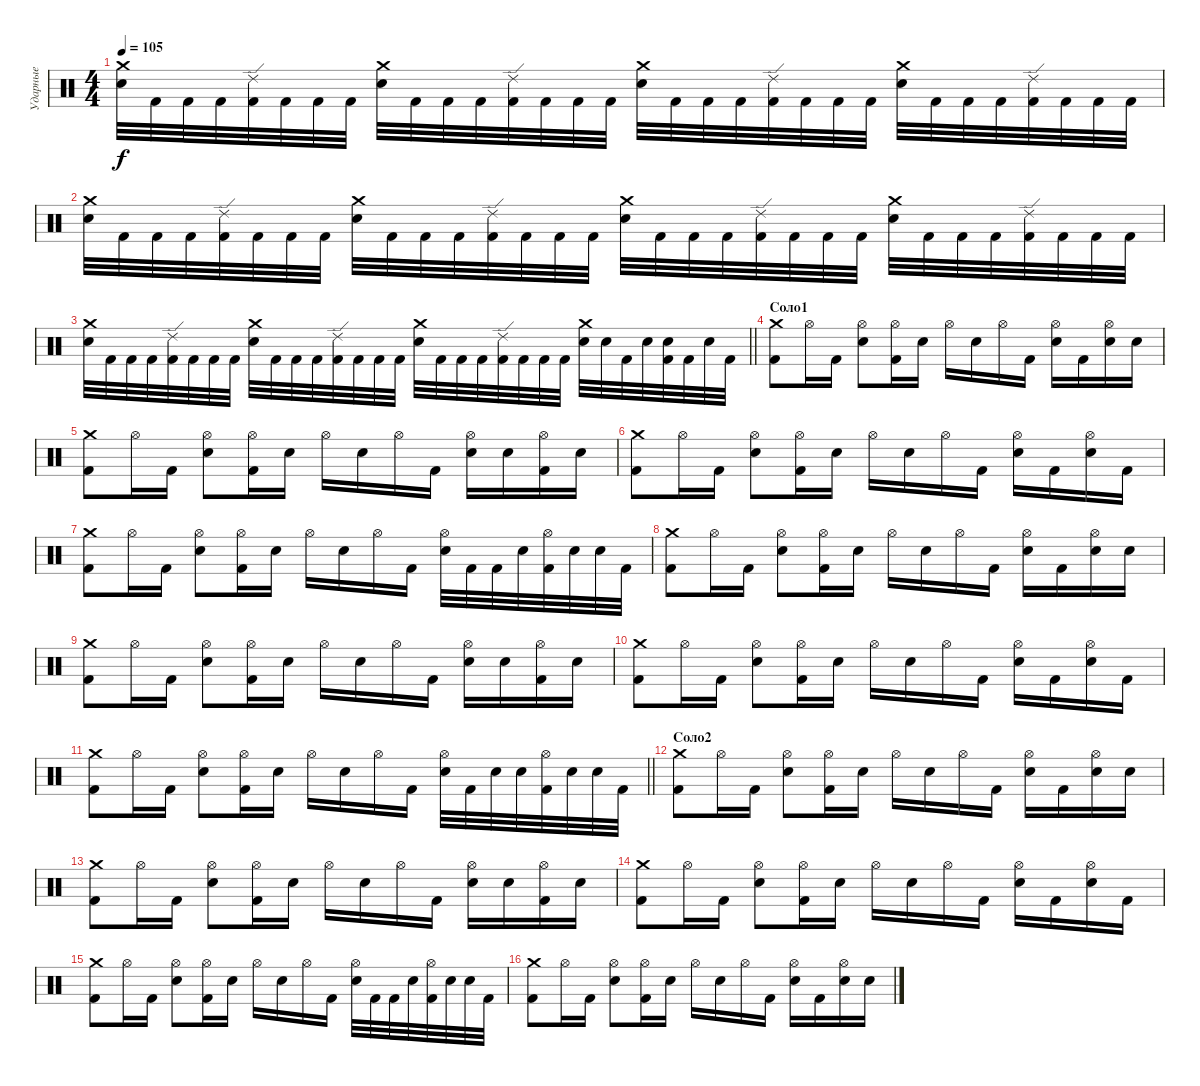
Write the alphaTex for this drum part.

\track ("Ударные" "Ударные") {instrument percussion}
\staff {score}
\articulation defaults
\ts (4 4)
\tempo 105
\clef neutral
\ks c
("Crash medium (hit)" "Electric Snare (hit)").32{dy f} "Kick (hit) 2".32 "Kick (hit) 2".32 "Kick (hit) 2".32 ("Ride (edge) 2" "Kick (hit) 2").32 "Kick (hit) 2".32 "Kick (hit) 2".32 "Kick (hit) 2".32 ("Crash medium (hit)" "Electric Snare (hit)").32 "Kick (hit) 2".32 "Kick (hit) 2".32 "Kick (hit) 2".32 ("Ride (edge) 2" "Kick (hit) 2").32 "Kick (hit) 2".32 "Kick (hit) 2".32 "Kick (hit) 2".32 ("Crash medium (hit)" "Electric Snare (hit)").32 "Kick (hit) 2".32 "Kick (hit) 2".32 "Kick (hit) 2".32 ("Ride (edge) 2" "Kick (hit) 2").32 "Kick (hit) 2".32 "Kick (hit) 2".32 "Kick (hit) 2".32 ("Crash medium (hit)" "Electric Snare (hit)").32 "Kick (hit) 2".32 "Kick (hit) 2".32 "Kick (hit) 2".32 ("Ride (edge) 2" "Kick (hit) 2").32 "Kick (hit) 2".32 "Kick (hit) 2".32 "Kick (hit) 2".32 |
("Crash medium (hit)" "Electric Snare (hit)").32 "Kick (hit) 2".32 "Kick (hit) 2".32 "Kick (hit) 2".32 ("Ride (edge) 2" "Kick (hit) 2").32 "Kick (hit) 2".32 "Kick (hit) 2".32 "Kick (hit) 2".32 ("Crash medium (hit)" "Electric Snare (hit)").32 "Kick (hit) 2".32 "Kick (hit) 2".32 "Kick (hit) 2".32 ("Ride (edge) 2" "Kick (hit) 2").32 "Kick (hit) 2".32 "Kick (hit) 2".32 "Kick (hit) 2".32 ("Crash medium (hit)" "Electric Snare (hit)").32 "Kick (hit) 2".32 "Kick (hit) 2".32 "Kick (hit) 2".32 ("Ride (edge) 2" "Kick (hit) 2").32 "Kick (hit) 2".32 "Kick (hit) 2".32 "Kick (hit) 2".32 ("Crash medium (hit)" "Electric Snare (hit)").32 "Kick (hit) 2".32 "Kick (hit) 2".32 "Kick (hit) 2".32 ("Ride (edge) 2" "Kick (hit) 2").32 "Kick (hit) 2".32 "Kick (hit) 2".32 "Kick (hit) 2".32 |
\barLineRight lightlight
("Crash medium (hit)" "Electric Snare (hit)").32 "Kick (hit) 2".32 "Kick (hit) 2".32 "Kick (hit) 2".32 ("Ride (edge) 2" "Kick (hit) 2").32 "Kick (hit) 2".32 "Kick (hit) 2".32 "Kick (hit) 2".32 ("Crash medium (hit)" "Electric Snare (hit)").32 "Kick (hit) 2".32 "Kick (hit) 2".32 "Kick (hit) 2".32 ("Ride (edge) 2" "Kick (hit) 2").32 "Kick (hit) 2".32 "Kick (hit) 2".32 "Kick (hit) 2".32 ("Crash medium (hit)" "Electric Snare (hit)").32 "Kick (hit) 2".32 "Kick (hit) 2".32 "Kick (hit) 2".32 ("Ride (edge) 2" "Kick (hit) 2").32 "Kick (hit) 2".32 "Kick (hit) 2".32 "Kick (hit) 2".32 ("Crash medium (hit)" "Electric Snare (hit)").32 "Electric Snare (hit)".32 "Kick (hit) 2".32 "Electric Snare (hit)".32 ("Electric Snare (hit)" "Kick (hit) 2").32 "Kick (hit) 2".32 "Electric Snare (hit)".32 "Kick (hit) 2".32 |
\section ("" "Соло1")
("Crash medium (hit)" "Kick (hit) 2").8 "Hi-Hat (open)".16 "Kick (hit) 2".16 ("Hi-Hat (open)" "Electric Snare (hit)").8 ("Hi-Hat (open)" "Kick (hit) 2").16 "Electric Snare (hit)".16 "Hi-Hat (open)".16 "Electric Snare (hit)".16 "Hi-Hat (open)".16 "Kick (hit) 2".16 ("Hi-Hat (open)" "Electric Snare (hit)").16 "Kick (hit) 2".16 ("Hi-Hat (open)" "Electric Snare (hit)").16 "Electric Snare (hit)".16 |
("Crash medium (hit)" "Kick (hit) 2").8 "Hi-Hat (open)".16 "Kick (hit) 2".16 ("Hi-Hat (open)" "Electric Snare (hit)").8 ("Hi-Hat (open)" "Kick (hit) 2").16 "Electric Snare (hit)".16 "Hi-Hat (open)".16 "Electric Snare (hit)".16 "Hi-Hat (open)".16 "Kick (hit) 2".16 ("Hi-Hat (open)" "Electric Snare (hit)").16 "Electric Snare (hit)".16 ("Hi-Hat (open)" "Kick (hit) 2").16 "Electric Snare (hit)".16 |
("Crash medium (hit)" "Kick (hit) 2").8 "Hi-Hat (open)".16 "Kick (hit) 2".16 ("Hi-Hat (open)" "Electric Snare (hit)").8 ("Hi-Hat (open)" "Kick (hit) 2").16 "Electric Snare (hit)".16 "Hi-Hat (open)".16 "Electric Snare (hit)".16 "Hi-Hat (open)".16 "Kick (hit) 2".16 ("Hi-Hat (open)" "Electric Snare (hit)").16 "Kick (hit) 2".16 ("Hi-Hat (open)" "Electric Snare (hit)").16 "Kick (hit) 2".16 |
("Crash medium (hit)" "Kick (hit) 2").8 "Hi-Hat (open)".16 "Kick (hit) 2".16 ("Hi-Hat (open)" "Electric Snare (hit)").8 ("Hi-Hat (open)" "Kick (hit) 2").16 "Electric Snare (hit)".16 "Hi-Hat (open)".16 "Electric Snare (hit)".16 "Hi-Hat (open)".16 "Kick (hit) 2".16 ("Electric Snare (hit)" "Hi-Hat (open)").32 "Kick (hit) 2".32 "Kick (hit) 2".32 "Electric Snare (hit)".32 ("Kick (hit) 2" "Hi-Hat (open)").32 "Electric Snare (hit)".32 "Electric Snare (hit)".32 "Kick (hit) 2".32 |
("Crash medium (hit)" "Kick (hit) 2").8 "Hi-Hat (open)".16 "Kick (hit) 2".16 ("Hi-Hat (open)" "Electric Snare (hit)").8 ("Hi-Hat (open)" "Kick (hit) 2").16 "Electric Snare (hit)".16 "Hi-Hat (open)".16 "Electric Snare (hit)".16 "Hi-Hat (open)".16 "Kick (hit) 2".16 ("Hi-Hat (open)" "Electric Snare (hit)").16 "Kick (hit) 2".16 ("Hi-Hat (open)" "Electric Snare (hit)").16 "Electric Snare (hit)".16 |
("Crash medium (hit)" "Kick (hit) 2").8 "Hi-Hat (open)".16 "Kick (hit) 2".16 ("Hi-Hat (open)" "Electric Snare (hit)").8 ("Hi-Hat (open)" "Kick (hit) 2").16 "Electric Snare (hit)".16 "Hi-Hat (open)".16 "Electric Snare (hit)".16 "Hi-Hat (open)".16 "Kick (hit) 2".16 ("Hi-Hat (open)" "Electric Snare (hit)").16 "Electric Snare (hit)".16 ("Hi-Hat (open)" "Kick (hit) 2").16 "Electric Snare (hit)".16 |
("Crash medium (hit)" "Kick (hit) 2").8 "Hi-Hat (open)".16 "Kick (hit) 2".16 ("Hi-Hat (open)" "Electric Snare (hit)").8 ("Hi-Hat (open)" "Kick (hit) 2").16 "Electric Snare (hit)".16 "Hi-Hat (open)".16 "Electric Snare (hit)".16 "Hi-Hat (open)".16 "Kick (hit) 2".16 ("Hi-Hat (open)" "Electric Snare (hit)").16 "Kick (hit) 2".16 ("Hi-Hat (open)" "Electric Snare (hit)").16 "Kick (hit) 2".16 |
\barLineRight lightlight
("Crash medium (hit)" "Kick (hit) 2").8 "Hi-Hat (open)".16 "Kick (hit) 2".16 ("Hi-Hat (open)" "Electric Snare (hit)").8 ("Hi-Hat (open)" "Kick (hit) 2").16 "Electric Snare (hit)".16 "Hi-Hat (open)".16 "Electric Snare (hit)".16 "Hi-Hat (open)".16 "Kick (hit) 2".16 ("Electric Snare (hit)" "Hi-Hat (open)").32 "Kick (hit) 2".32 "Electric Snare (hit)".32 "Electric Snare (hit)".32 ("Kick (hit) 2" "Hi-Hat (open)").32 "Electric Snare (hit)".32 "Electric Snare (hit)".32 "Kick (hit) 2".32 |
\section ("" "Соло2")
("Crash medium (hit)" "Kick (hit) 2").8 "Hi-Hat (open)".16 "Kick (hit) 2".16 ("Hi-Hat (open)" "Electric Snare (hit)").8 ("Hi-Hat (open)" "Kick (hit) 2").16 "Electric Snare (hit)".16 "Hi-Hat (open)".16 "Electric Snare (hit)".16 "Hi-Hat (open)".16 "Kick (hit) 2".16 ("Hi-Hat (open)" "Electric Snare (hit)").16 "Kick (hit) 2".16 ("Hi-Hat (open)" "Electric Snare (hit)").16 "Electric Snare (hit)".16 |
("Crash medium (hit)" "Kick (hit) 2").8 "Hi-Hat (open)".16 "Kick (hit) 2".16 ("Hi-Hat (open)" "Electric Snare (hit)").8 ("Hi-Hat (open)" "Kick (hit) 2").16 "Electric Snare (hit)".16 "Hi-Hat (open)".16 "Electric Snare (hit)".16 "Hi-Hat (open)".16 "Kick (hit) 2".16 ("Hi-Hat (open)" "Electric Snare (hit)").16 "Electric Snare (hit)".16 ("Hi-Hat (open)" "Kick (hit) 2").16 "Electric Snare (hit)".16 |
("Crash medium (hit)" "Kick (hit) 2").8 "Hi-Hat (open)".16 "Kick (hit) 2".16 ("Hi-Hat (open)" "Electric Snare (hit)").8 ("Hi-Hat (open)" "Kick (hit) 2").16 "Electric Snare (hit)".16 "Hi-Hat (open)".16 "Electric Snare (hit)".16 "Hi-Hat (open)".16 "Kick (hit) 2".16 ("Hi-Hat (open)" "Electric Snare (hit)").16 "Kick (hit) 2".16 ("Hi-Hat (open)" "Electric Snare (hit)").16 "Kick (hit) 2".16 |
("Crash medium (hit)" "Kick (hit) 2").8 "Hi-Hat (open)".16 "Kick (hit) 2".16 ("Hi-Hat (open)" "Electric Snare (hit)").8 ("Hi-Hat (open)" "Kick (hit) 2").16 "Electric Snare (hit)".16 "Hi-Hat (open)".16 "Electric Snare (hit)".16 "Hi-Hat (open)".16 "Kick (hit) 2".16 ("Electric Snare (hit)" "Hi-Hat (open)").32 "Kick (hit) 2".32 "Kick (hit) 2".32 "Electric Snare (hit)".32 ("Kick (hit) 2" "Hi-Hat (open)").32 "Electric Snare (hit)".32 "Electric Snare (hit)".32 "Kick (hit) 2".32 |
("Crash medium (hit)" "Kick (hit) 2").8 "Hi-Hat (open)".16 "Kick (hit) 2".16 ("Hi-Hat (open)" "Electric Snare (hit)").8 ("Hi-Hat (open)" "Kick (hit) 2").16 "Electric Snare (hit)".16 "Hi-Hat (open)".16 "Electric Snare (hit)".16 "Hi-Hat (open)".16 "Kick (hit) 2".16 ("Hi-Hat (open)" "Electric Snare (hit)").16 "Kick (hit) 2".16 ("Hi-Hat (open)" "Electric Snare (hit)").16 "Electric Snare (hit)".16
